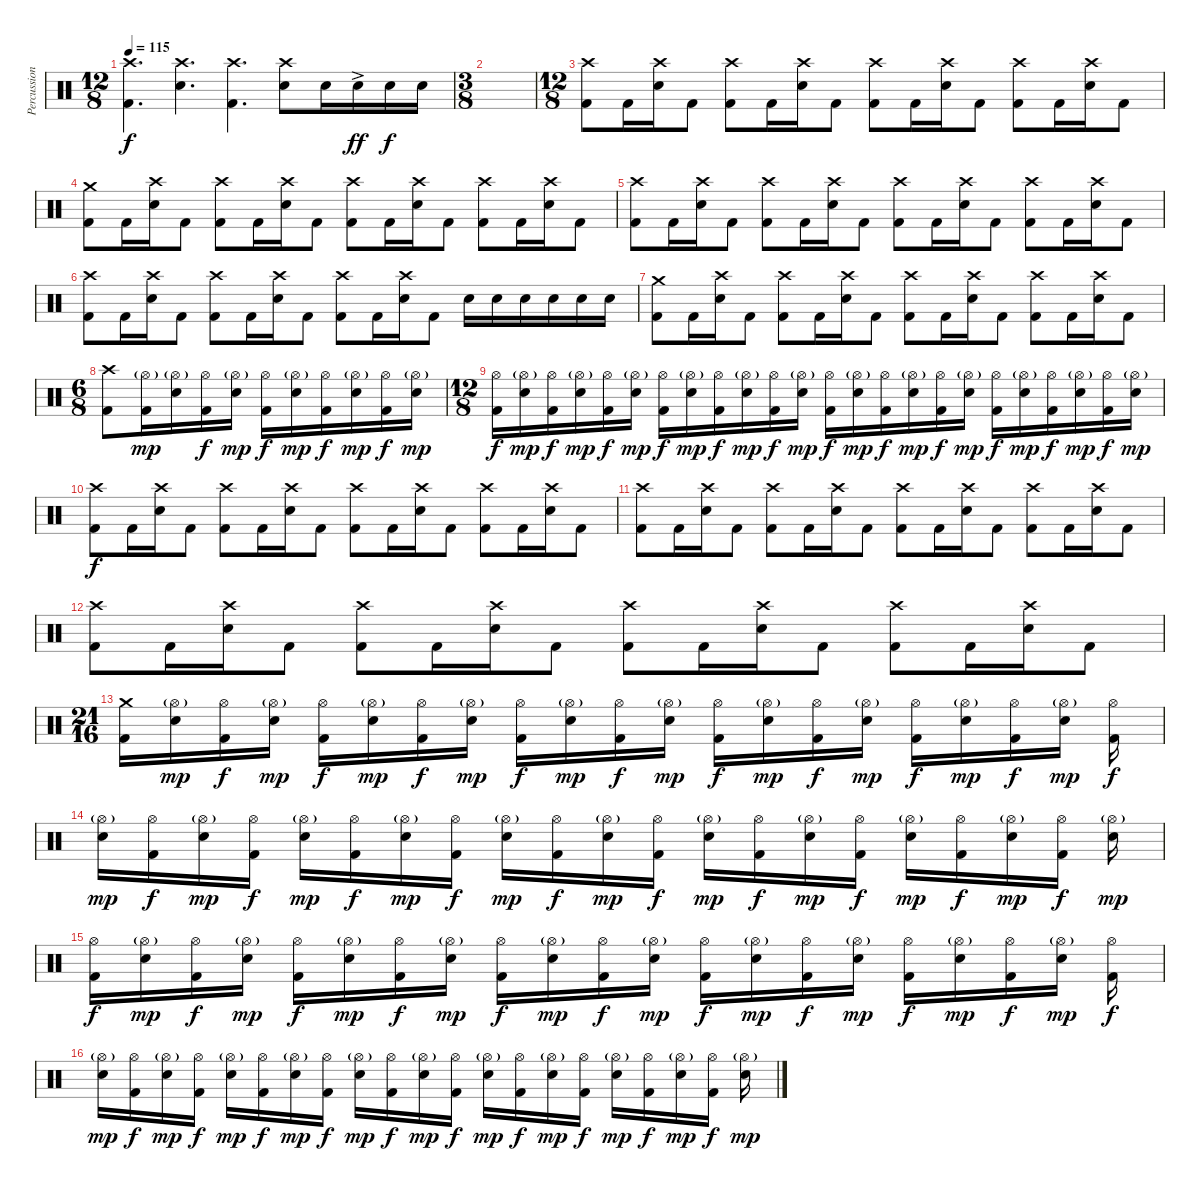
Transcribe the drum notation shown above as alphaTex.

\track ("Percussion" "Percussion") {instrument percussion}
\staff {score}
\articulation defaults
\ts (12 8)
\tempo 115
\clef neutral
\ks c
("Crash high (hit)" "Kick (hit) 2").4{d dy f} ("Crash high (hit)" "Electric Snare (hit)").4{d} ("Crash high (hit)" "Kick (hit) 2").4{d} ("Crash high (hit)" "Electric Snare (hit)").8 "Electric Snare (hit)".16 "Electric Snare (hit)"{ac}.16{dy ff} "Electric Snare (hit)".16{dy f} "Electric Snare (hit)".16 |
\ts (3 8)
|
\ts (12 8)
("Crash high (hit)" "Kick (hit) 2").8 "Kick (hit) 2".16 ("Crash high (hit)" "Electric Snare (hit)").16 "Kick (hit) 2".8 ("Crash high (hit)" "Kick (hit) 2").8 "Kick (hit) 2".16 ("Crash high (hit)" "Electric Snare (hit)").16 "Kick (hit) 2".8 ("Crash high (hit)" "Kick (hit) 2").8 "Kick (hit) 2".16 ("Crash high (hit)" "Electric Snare (hit)").16 "Kick (hit) 2".8 ("Crash high (hit)" "Kick (hit) 2").8 "Kick (hit) 2".16 ("Crash high (hit)" "Electric Snare (hit)").16 "Kick (hit) 2".8 |
("Crash medium (hit)" "Kick (hit) 2").8 "Kick (hit) 2".16 ("Crash high (hit)" "Electric Snare (hit)").16 "Kick (hit) 2".8 ("Crash high (hit)" "Kick (hit) 2").8 "Kick (hit) 2".16 ("Crash high (hit)" "Electric Snare (hit)").16 "Kick (hit) 2".8 ("Crash high (hit)" "Kick (hit) 2").8 "Kick (hit) 2".16 ("Crash high (hit)" "Electric Snare (hit)").16 "Kick (hit) 2".8 ("Crash high (hit)" "Kick (hit) 2").8 "Kick (hit) 2".16 ("Crash high (hit)" "Electric Snare (hit)").16 "Kick (hit) 2".8 |
("Crash high (hit)" "Kick (hit) 2").8 "Kick (hit) 2".16 ("Crash high (hit)" "Electric Snare (hit)").16 "Kick (hit) 2".8 ("Crash high (hit)" "Kick (hit) 2").8 "Kick (hit) 2".16 ("Crash high (hit)" "Electric Snare (hit)").16 "Kick (hit) 2".8 ("Crash high (hit)" "Kick (hit) 2").8 "Kick (hit) 2".16 ("Crash high (hit)" "Electric Snare (hit)").16 "Kick (hit) 2".8 ("Crash high (hit)" "Kick (hit) 2").8 "Kick (hit) 2".16 ("Crash high (hit)" "Electric Snare (hit)").16 "Kick (hit) 2".8 |
("Crash high (hit)" "Kick (hit) 2").8 "Kick (hit) 2".16 ("Crash high (hit)" "Electric Snare (hit)").16 "Kick (hit) 2".8 ("Crash high (hit)" "Kick (hit) 2").8 "Kick (hit) 2".16 ("Crash high (hit)" "Electric Snare (hit)").16 "Kick (hit) 2".8 ("Crash high (hit)" "Kick (hit) 2").8 "Kick (hit) 2".16 ("Crash high (hit)" "Electric Snare (hit)").16 "Kick (hit) 2".8 "Electric Snare (hit)".16 "Electric Snare (hit)".16 "Electric Snare (hit)".16 "Electric Snare (hit)".16 "Electric Snare (hit)".16 "Electric Snare (hit)".16 |
("Crash medium (hit)" "Kick (hit) 2").8 "Kick (hit) 2".16 ("Crash high (hit)" "Electric Snare (hit)").16 "Kick (hit) 2".8 ("Crash high (hit)" "Kick (hit) 2").8 "Kick (hit) 2".16 ("Crash high (hit)" "Electric Snare (hit)").16 "Kick (hit) 2".8 ("Crash high (hit)" "Kick (hit) 2").8 "Kick (hit) 2".16 ("Crash high (hit)" "Electric Snare (hit)").16 "Kick (hit) 2".8 ("Crash high (hit)" "Kick (hit) 2").8 "Kick (hit) 2".16 ("Crash high (hit)" "Electric Snare (hit)").16 "Kick (hit) 2".8 |
\ts (6 8)
("Crash high (hit)" "Kick (hit) 2").8 ("Hi-Hat (open)"{g} "Kick (hit) 2").16{dy mp} ("Hi-Hat (open)"{g} "Electric Snare (hit)").16 ("Hi-Hat (open)" "Kick (hit) 2").16{dy f} ("Hi-Hat (open)"{g} "Electric Snare (hit)").16{dy mp} ("Hi-Hat (open)" "Kick (hit) 2").16{dy f} ("Hi-Hat (open)"{g} "Electric Snare (hit)").16{dy mp} ("Hi-Hat (open)" "Kick (hit) 2").16{dy f} ("Hi-Hat (open)"{g} "Electric Snare (hit)").16{dy mp} ("Hi-Hat (open)" "Kick (hit) 2").16{dy f} ("Hi-Hat (open)"{g} "Electric Snare (hit)").16{dy mp} |
\ts (12 8)
("Hi-Hat (open)" "Kick (hit) 2").16{dy f} ("Hi-Hat (open)"{g} "Electric Snare (hit)").16{dy mp} ("Hi-Hat (open)" "Kick (hit) 2").16{dy f} ("Hi-Hat (open)"{g} "Electric Snare (hit)").16{dy mp} ("Hi-Hat (open)" "Kick (hit) 2").16{dy f} ("Hi-Hat (open)"{g} "Electric Snare (hit)").16{dy mp} ("Hi-Hat (open)" "Kick (hit) 2").16{dy f} ("Hi-Hat (open)"{g} "Electric Snare (hit)").16{dy mp} ("Hi-Hat (open)" "Kick (hit) 2").16{dy f} ("Hi-Hat (open)"{g} "Electric Snare (hit)").16{dy mp} ("Hi-Hat (open)" "Kick (hit) 2").16{dy f} ("Hi-Hat (open)"{g} "Electric Snare (hit)").16{dy mp} ("Hi-Hat (open)" "Kick (hit) 2").16{dy f} ("Hi-Hat (open)"{g} "Electric Snare (hit)").16{dy mp} ("Hi-Hat (open)" "Kick (hit) 2").16{dy f} ("Hi-Hat (open)"{g} "Electric Snare (hit)").16{dy mp} ("Hi-Hat (open)" "Kick (hit) 2").16{dy f} ("Hi-Hat (open)"{g} "Electric Snare (hit)").16{dy mp} ("Hi-Hat (open)" "Kick (hit) 2").16{dy f} ("Hi-Hat (open)"{g} "Electric Snare (hit)").16{dy mp} ("Hi-Hat (open)" "Kick (hit) 2").16{dy f} ("Hi-Hat (open)"{g} "Electric Snare (hit)").16{dy mp} ("Hi-Hat (open)" "Kick (hit) 2").16{dy f} ("Hi-Hat (open)"{g} "Electric Snare (hit)").16{dy mp} |
("Crash high (hit)" "Kick (hit) 2").8{dy f} "Kick (hit) 2".16 ("Crash high (hit)" "Electric Snare (hit)").16 "Kick (hit) 2".8 ("Crash high (hit)" "Kick (hit) 2").8 "Kick (hit) 2".16 ("Crash high (hit)" "Electric Snare (hit)").16 "Kick (hit) 2".8 ("Crash high (hit)" "Kick (hit) 2").8 "Kick (hit) 2".16 ("Crash high (hit)" "Electric Snare (hit)").16 "Kick (hit) 2".8 ("Crash high (hit)" "Kick (hit) 2").8 "Kick (hit) 2".16 ("Crash high (hit)" "Electric Snare (hit)").16 "Kick (hit) 2".8 |
("Crash high (hit)" "Kick (hit) 2").8 "Kick (hit) 2".16 ("Crash high (hit)" "Electric Snare (hit)").16 "Kick (hit) 2".8 ("Crash high (hit)" "Kick (hit) 2").8 "Kick (hit) 2".16 ("Crash high (hit)" "Electric Snare (hit)").16 "Kick (hit) 2".8 ("Crash high (hit)" "Kick (hit) 2").8 "Kick (hit) 2".16 ("Crash high (hit)" "Electric Snare (hit)").16 "Kick (hit) 2".8 ("Crash high (hit)" "Kick (hit) 2").8 "Kick (hit) 2".16 ("Crash high (hit)" "Electric Snare (hit)").16 "Kick (hit) 2".8 |
("Crash high (hit)" "Kick (hit) 2").8 "Kick (hit) 2".16 ("Crash high (hit)" "Electric Snare (hit)").16 "Kick (hit) 2".8 ("Crash high (hit)" "Kick (hit) 2").8 "Kick (hit) 2".16 ("Crash high (hit)" "Electric Snare (hit)").16 "Kick (hit) 2".8 ("Crash high (hit)" "Kick (hit) 2").8 "Kick (hit) 2".16 ("Crash high (hit)" "Electric Snare (hit)").16 "Kick (hit) 2".8 ("Crash high (hit)" "Kick (hit) 2").8 "Kick (hit) 2".16 ("Crash high (hit)" "Electric Snare (hit)").16 "Kick (hit) 2".8 |
\ts (21 16)
("Crash medium (hit)" "Kick (hit) 2").16 ("Hi-Hat (open)"{g} "Electric Snare (hit)").16{dy mp} ("Hi-Hat (open)" "Kick (hit) 2").16{dy f} ("Hi-Hat (open)"{g} "Electric Snare (hit)").16{dy mp} ("Hi-Hat (open)" "Kick (hit) 2").16{dy f} ("Hi-Hat (open)"{g} "Electric Snare (hit)").16{dy mp} ("Hi-Hat (open)" "Kick (hit) 2").16{dy f} ("Hi-Hat (open)"{g} "Electric Snare (hit)").16{dy mp} ("Hi-Hat (open)" "Kick (hit) 2").16{dy f} ("Hi-Hat (open)"{g} "Electric Snare (hit)").16{dy mp} ("Hi-Hat (open)" "Kick (hit) 2").16{dy f} ("Hi-Hat (open)"{g} "Electric Snare (hit)").16{dy mp} ("Hi-Hat (open)" "Kick (hit) 2").16{dy f} ("Hi-Hat (open)"{g} "Electric Snare (hit)").16{dy mp} ("Hi-Hat (open)" "Kick (hit) 2").16{dy f} ("Hi-Hat (open)"{g} "Electric Snare (hit)").16{dy mp} ("Hi-Hat (open)" "Kick (hit) 2").16{dy f} ("Hi-Hat (open)"{g} "Electric Snare (hit)").16{dy mp} ("Hi-Hat (open)" "Kick (hit) 2").16{dy f} ("Hi-Hat (open)"{g} "Electric Snare (hit)").16{dy mp} ("Hi-Hat (open)" "Kick (hit) 2").16{dy f} |
("Hi-Hat (open)"{g} "Electric Snare (hit)").16{dy mp} ("Hi-Hat (open)" "Kick (hit) 2").16{dy f} ("Hi-Hat (open)"{g} "Electric Snare (hit)").16{dy mp} ("Hi-Hat (open)" "Kick (hit) 2").16{dy f} ("Hi-Hat (open)"{g} "Electric Snare (hit)").16{dy mp} ("Hi-Hat (open)" "Kick (hit) 2").16{dy f} ("Hi-Hat (open)"{g} "Electric Snare (hit)").16{dy mp} ("Hi-Hat (open)" "Kick (hit) 2").16{dy f} ("Hi-Hat (open)"{g} "Electric Snare (hit)").16{dy mp} ("Hi-Hat (open)" "Kick (hit) 2").16{dy f} ("Hi-Hat (open)"{g} "Electric Snare (hit)").16{dy mp} ("Hi-Hat (open)" "Kick (hit) 2").16{dy f} ("Hi-Hat (open)"{g} "Electric Snare (hit)").16{dy mp} ("Hi-Hat (open)" "Kick (hit) 2").16{dy f} ("Hi-Hat (open)"{g} "Electric Snare (hit)").16{dy mp} ("Hi-Hat (open)" "Kick (hit) 2").16{dy f} ("Hi-Hat (open)"{g} "Electric Snare (hit)").16{dy mp} ("Hi-Hat (open)" "Kick (hit) 2").16{dy f} ("Hi-Hat (open)"{g} "Electric Snare (hit)").16{dy mp} ("Hi-Hat (open)" "Kick (hit) 2").16{dy f} ("Hi-Hat (open)"{g} "Electric Snare (hit)").16{dy mp} |
("Hi-Hat (open)" "Kick (hit) 2").16{dy f} ("Hi-Hat (open)"{g} "Electric Snare (hit)").16{dy mp} ("Hi-Hat (open)" "Kick (hit) 2").16{dy f} ("Hi-Hat (open)"{g} "Electric Snare (hit)").16{dy mp} ("Hi-Hat (open)" "Kick (hit) 2").16{dy f} ("Hi-Hat (open)"{g} "Electric Snare (hit)").16{dy mp} ("Hi-Hat (open)" "Kick (hit) 2").16{dy f} ("Hi-Hat (open)"{g} "Electric Snare (hit)").16{dy mp} ("Hi-Hat (open)" "Kick (hit) 2").16{dy f} ("Hi-Hat (open)"{g} "Electric Snare (hit)").16{dy mp} ("Hi-Hat (open)" "Kick (hit) 2").16{dy f} ("Hi-Hat (open)"{g} "Electric Snare (hit)").16{dy mp} ("Hi-Hat (open)" "Kick (hit) 2").16{dy f} ("Hi-Hat (open)"{g} "Electric Snare (hit)").16{dy mp} ("Hi-Hat (open)" "Kick (hit) 2").16{dy f} ("Hi-Hat (open)"{g} "Electric Snare (hit)").16{dy mp} ("Hi-Hat (open)" "Kick (hit) 2").16{dy f} ("Hi-Hat (open)"{g} "Electric Snare (hit)").16{dy mp} ("Hi-Hat (open)" "Kick (hit) 2").16{dy f} ("Hi-Hat (open)"{g} "Electric Snare (hit)").16{dy mp} ("Hi-Hat (open)" "Kick (hit) 2").16{dy f} |
("Hi-Hat (open)"{g} "Electric Snare (hit)").16{dy mp} ("Hi-Hat (open)" "Kick (hit) 2").16{dy f} ("Hi-Hat (open)"{g} "Electric Snare (hit)").16{dy mp} ("Hi-Hat (open)" "Kick (hit) 2").16{dy f} ("Hi-Hat (open)"{g} "Electric Snare (hit)").16{dy mp} ("Hi-Hat (open)" "Kick (hit) 2").16{dy f} ("Hi-Hat (open)"{g} "Electric Snare (hit)").16{dy mp} ("Hi-Hat (open)" "Kick (hit) 2").16{dy f} ("Hi-Hat (open)"{g} "Electric Snare (hit)").16{dy mp} ("Hi-Hat (open)" "Kick (hit) 2").16{dy f} ("Hi-Hat (open)"{g} "Electric Snare (hit)").16{dy mp} ("Hi-Hat (open)" "Kick (hit) 2").16{dy f} ("Hi-Hat (open)"{g} "Electric Snare (hit)").16{dy mp} ("Hi-Hat (open)" "Kick (hit) 2").16{dy f} ("Hi-Hat (open)"{g} "Electric Snare (hit)").16{dy mp} ("Hi-Hat (open)" "Kick (hit) 2").16{dy f} ("Hi-Hat (open)"{g} "Electric Snare (hit)").16{dy mp} ("Hi-Hat (open)" "Kick (hit) 2").16{dy f} ("Hi-Hat (open)"{g} "Electric Snare (hit)").16{dy mp} ("Hi-Hat (open)" "Kick (hit) 2").16{dy f} ("Hi-Hat (open)"{g} "Electric Snare (hit)").16{dy mp}
